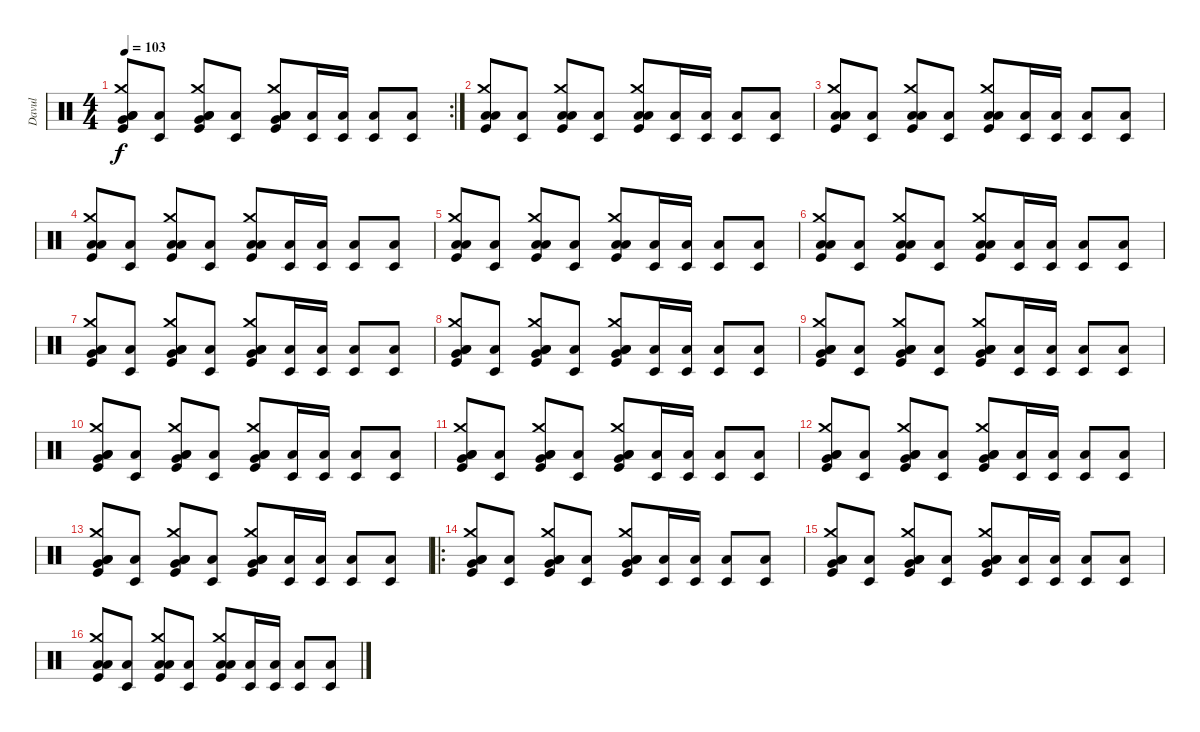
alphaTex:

\track ("Davul" "Davul") {instrument percussion}
\staff {score}
\articulation defaults
\rc 2
\ts (4 4)
\tempo 103
\clef neutral
\ks c
("Kick (hit)" "Low Tom (hit)" "Low Floor Tom (hit)" "Very Low Tom (hit)" "Crash medium (hit)").8{dy f} ("Timbale low (hit)" "Low Floor Tom (hit)").8 ("Kick (hit)" "Low Tom (hit)" "Low Floor Tom (hit)" "Very Low Tom (hit)" "Crash medium (hit)").8 ("Timbale low (hit)" "Low Floor Tom (hit)").8 ("Kick (hit)" "Low Tom (hit)" "Low Floor Tom (hit)" "Very Low Tom (hit)" "Crash medium (hit)").8 ("Timbale low (hit)" "Low Floor Tom (hit)").16 ("Timbale low (hit)" "Low Floor Tom (hit)").16 ("Timbale low (hit)" "Low Floor Tom (hit)").8 ("Timbale low (hit)" "Low Floor Tom (hit)").8 |
("Kick (hit)" "Low Tom (hit)" "Low Floor Tom (hit)" "Crash medium (hit)").8 ("Timbale low (hit)" "Low Floor Tom (hit)").8 ("Kick (hit)" "Low Tom (hit)" "Low Floor Tom (hit)" "Crash medium (hit)").8 ("Timbale low (hit)" "Low Floor Tom (hit)").8 ("Kick (hit)" "Low Tom (hit)" "Low Floor Tom (hit)" "Crash medium (hit)").8 ("Timbale low (hit)" "Low Floor Tom (hit)").16 ("Timbale low (hit)" "Low Floor Tom (hit)").16 ("Timbale low (hit)" "Low Floor Tom (hit)").8 ("Timbale low (hit)" "Low Floor Tom (hit)").8 |
("Kick (hit)" "Low Tom (hit)" "Low Floor Tom (hit)" "Crash medium (hit)").8 ("Timbale low (hit)" "Low Floor Tom (hit)").8 ("Kick (hit)" "Low Tom (hit)" "Low Floor Tom (hit)" "Crash medium (hit)").8 ("Timbale low (hit)" "Low Floor Tom (hit)").8 ("Kick (hit)" "Low Tom (hit)" "Low Floor Tom (hit)" "Crash medium (hit)").8 ("Timbale low (hit)" "Low Floor Tom (hit)").16 ("Timbale low (hit)" "Low Floor Tom (hit)").16 ("Timbale low (hit)" "Low Floor Tom (hit)").8 ("Timbale low (hit)" "Low Floor Tom (hit)").8 |
("Kick (hit)" "Low Tom (hit)" "Low Floor Tom (hit)" "Crash medium (hit)").8 ("Timbale low (hit)" "Low Floor Tom (hit)").8 ("Kick (hit)" "Low Tom (hit)" "Low Floor Tom (hit)" "Crash medium (hit)").8 ("Timbale low (hit)" "Low Floor Tom (hit)").8 ("Kick (hit)" "Low Tom (hit)" "Low Floor Tom (hit)" "Crash medium (hit)").8 ("Timbale low (hit)" "Low Floor Tom (hit)").16 ("Timbale low (hit)" "Low Floor Tom (hit)").16 ("Timbale low (hit)" "Low Floor Tom (hit)").8 ("Timbale low (hit)" "Low Floor Tom (hit)").8 |
("Kick (hit)" "Low Tom (hit)" "Low Floor Tom (hit)" "Crash medium (hit)").8 ("Timbale low (hit)" "Low Floor Tom (hit)").8 ("Kick (hit)" "Low Tom (hit)" "Low Floor Tom (hit)" "Crash medium (hit)").8 ("Timbale low (hit)" "Low Floor Tom (hit)").8 ("Kick (hit)" "Low Tom (hit)" "Low Floor Tom (hit)" "Crash medium (hit)").8 ("Timbale low (hit)" "Low Floor Tom (hit)").16 ("Timbale low (hit)" "Low Floor Tom (hit)").16 ("Timbale low (hit)" "Low Floor Tom (hit)").8 ("Timbale low (hit)" "Low Floor Tom (hit)").8 |
("Kick (hit)" "Low Tom (hit)" "Low Floor Tom (hit)" "Crash medium (hit)").8 ("Timbale low (hit)" "Low Floor Tom (hit)").8 ("Kick (hit)" "Low Tom (hit)" "Low Floor Tom (hit)" "Crash medium (hit)").8 ("Timbale low (hit)" "Low Floor Tom (hit)").8 ("Kick (hit)" "Low Tom (hit)" "Low Floor Tom (hit)" "Crash medium (hit)").8 ("Timbale low (hit)" "Low Floor Tom (hit)").16 ("Timbale low (hit)" "Low Floor Tom (hit)").16 ("Timbale low (hit)" "Low Floor Tom (hit)").8 ("Timbale low (hit)" "Low Floor Tom (hit)").8 |
("Kick (hit)" "Low Tom (hit)" "Low Floor Tom (hit)" "Very Low Tom (hit)" "Crash medium (hit)").8 ("Timbale low (hit)" "Low Floor Tom (hit)").8 ("Kick (hit)" "Low Tom (hit)" "Low Floor Tom (hit)" "Very Low Tom (hit)" "Crash medium (hit)").8 ("Timbale low (hit)" "Low Floor Tom (hit)").8 ("Kick (hit)" "Low Tom (hit)" "Low Floor Tom (hit)" "Very Low Tom (hit)" "Crash medium (hit)").8 ("Timbale low (hit)" "Low Floor Tom (hit)").16 ("Timbale low (hit)" "Low Floor Tom (hit)").16 ("Timbale low (hit)" "Low Floor Tom (hit)").8 ("Timbale low (hit)" "Low Floor Tom (hit)").8 |
("Kick (hit)" "Low Tom (hit)" "Low Floor Tom (hit)" "Very Low Tom (hit)" "Crash medium (hit)").8 ("Timbale low (hit)" "Low Floor Tom (hit)").8 ("Kick (hit)" "Low Tom (hit)" "Low Floor Tom (hit)" "Very Low Tom (hit)" "Crash medium (hit)").8 ("Timbale low (hit)" "Low Floor Tom (hit)").8 ("Kick (hit)" "Low Tom (hit)" "Low Floor Tom (hit)" "Very Low Tom (hit)" "Crash medium (hit)").8 ("Timbale low (hit)" "Low Floor Tom (hit)").16 ("Timbale low (hit)" "Low Floor Tom (hit)").16 ("Timbale low (hit)" "Low Floor Tom (hit)").8 ("Timbale low (hit)" "Low Floor Tom (hit)").8 |
("Kick (hit)" "Low Tom (hit)" "Low Floor Tom (hit)" "Very Low Tom (hit)" "Crash medium (hit)").8 ("Timbale low (hit)" "Low Floor Tom (hit)").8 ("Kick (hit)" "Low Tom (hit)" "Low Floor Tom (hit)" "Very Low Tom (hit)" "Crash medium (hit)").8 ("Timbale low (hit)" "Low Floor Tom (hit)").8 ("Kick (hit)" "Low Tom (hit)" "Low Floor Tom (hit)" "Very Low Tom (hit)" "Crash medium (hit)").8 ("Timbale low (hit)" "Low Floor Tom (hit)").16 ("Timbale low (hit)" "Low Floor Tom (hit)").16 ("Timbale low (hit)" "Low Floor Tom (hit)").8 ("Timbale low (hit)" "Low Floor Tom (hit)").8 |
("Kick (hit)" "Low Tom (hit)" "Low Floor Tom (hit)" "Very Low Tom (hit)" "Crash medium (hit)").8 ("Timbale low (hit)" "Low Floor Tom (hit)").8 ("Kick (hit)" "Low Tom (hit)" "Low Floor Tom (hit)" "Very Low Tom (hit)" "Crash medium (hit)").8 ("Timbale low (hit)" "Low Floor Tom (hit)").8 ("Kick (hit)" "Low Tom (hit)" "Low Floor Tom (hit)" "Very Low Tom (hit)" "Crash medium (hit)").8 ("Timbale low (hit)" "Low Floor Tom (hit)").16 ("Timbale low (hit)" "Low Floor Tom (hit)").16 ("Timbale low (hit)" "Low Floor Tom (hit)").8 ("Timbale low (hit)" "Low Floor Tom (hit)").8 |
("Kick (hit)" "Low Tom (hit)" "Low Floor Tom (hit)" "Very Low Tom (hit)" "Crash medium (hit)").8 ("Timbale low (hit)" "Low Floor Tom (hit)").8 ("Kick (hit)" "Low Tom (hit)" "Low Floor Tom (hit)" "Very Low Tom (hit)" "Crash medium (hit)").8 ("Timbale low (hit)" "Low Floor Tom (hit)").8 ("Kick (hit)" "Low Tom (hit)" "Low Floor Tom (hit)" "Very Low Tom (hit)" "Crash medium (hit)").8 ("Timbale low (hit)" "Low Floor Tom (hit)").16 ("Timbale low (hit)" "Low Floor Tom (hit)").16 ("Timbale low (hit)" "Low Floor Tom (hit)").8 ("Timbale low (hit)" "Low Floor Tom (hit)").8 |
("Kick (hit)" "Low Tom (hit)" "Low Floor Tom (hit)" "Very Low Tom (hit)" "Crash medium (hit)").8 ("Timbale low (hit)" "Low Floor Tom (hit)").8 ("Kick (hit)" "Low Tom (hit)" "Low Floor Tom (hit)" "Very Low Tom (hit)" "Crash medium (hit)").8 ("Timbale low (hit)" "Low Floor Tom (hit)").8 ("Kick (hit)" "Low Tom (hit)" "Low Floor Tom (hit)" "Very Low Tom (hit)" "Crash medium (hit)").8 ("Timbale low (hit)" "Low Floor Tom (hit)").16 ("Timbale low (hit)" "Low Floor Tom (hit)").16 ("Timbale low (hit)" "Low Floor Tom (hit)").8 ("Timbale low (hit)" "Low Floor Tom (hit)").8 |
("Kick (hit)" "Low Tom (hit)" "Low Floor Tom (hit)" "Very Low Tom (hit)" "Crash medium (hit)").8 ("Timbale low (hit)" "Low Floor Tom (hit)").8 ("Kick (hit)" "Low Tom (hit)" "Low Floor Tom (hit)" "Very Low Tom (hit)" "Crash medium (hit)").8 ("Timbale low (hit)" "Low Floor Tom (hit)").8 ("Kick (hit)" "Low Tom (hit)" "Low Floor Tom (hit)" "Very Low Tom (hit)" "Crash medium (hit)").8 ("Timbale low (hit)" "Low Floor Tom (hit)").16 ("Timbale low (hit)" "Low Floor Tom (hit)").16 ("Timbale low (hit)" "Low Floor Tom (hit)").8 ("Timbale low (hit)" "Low Floor Tom (hit)").8 |
\ro
("Kick (hit)" "Low Tom (hit)" "Low Floor Tom (hit)" "Very Low Tom (hit)" "Crash medium (hit)").8 ("Timbale low (hit)" "Low Floor Tom (hit)").8 ("Kick (hit)" "Low Tom (hit)" "Low Floor Tom (hit)" "Very Low Tom (hit)" "Crash medium (hit)").8 ("Timbale low (hit)" "Low Floor Tom (hit)").8 ("Kick (hit)" "Low Tom (hit)" "Low Floor Tom (hit)" "Very Low Tom (hit)" "Crash medium (hit)").8 ("Timbale low (hit)" "Low Floor Tom (hit)").16 ("Timbale low (hit)" "Low Floor Tom (hit)").16 ("Timbale low (hit)" "Low Floor Tom (hit)").8 ("Timbale low (hit)" "Low Floor Tom (hit)").8 |
("Kick (hit)" "Low Tom (hit)" "Low Floor Tom (hit)" "Very Low Tom (hit)" "Crash medium (hit)").8 ("Timbale low (hit)" "Low Floor Tom (hit)").8 ("Kick (hit)" "Low Tom (hit)" "Low Floor Tom (hit)" "Very Low Tom (hit)" "Crash medium (hit)").8 ("Timbale low (hit)" "Low Floor Tom (hit)").8 ("Kick (hit)" "Low Tom (hit)" "Low Floor Tom (hit)" "Very Low Tom (hit)" "Crash medium (hit)").8 ("Timbale low (hit)" "Low Floor Tom (hit)").16 ("Timbale low (hit)" "Low Floor Tom (hit)").16 ("Timbale low (hit)" "Low Floor Tom (hit)").8 ("Timbale low (hit)" "Low Floor Tom (hit)").8 |
("Kick (hit)" "Low Tom (hit)" "Low Floor Tom (hit)" "Crash medium (hit)").8 ("Timbale low (hit)" "Low Floor Tom (hit)").8 ("Kick (hit)" "Low Tom (hit)" "Low Floor Tom (hit)" "Crash medium (hit)").8 ("Timbale low (hit)" "Low Floor Tom (hit)").8 ("Kick (hit)" "Low Tom (hit)" "Low Floor Tom (hit)" "Crash medium (hit)").8 ("Timbale low (hit)" "Low Floor Tom (hit)").16 ("Timbale low (hit)" "Low Floor Tom (hit)").16 ("Timbale low (hit)" "Low Floor Tom (hit)").8 ("Timbale low (hit)" "Low Floor Tom (hit)").8
